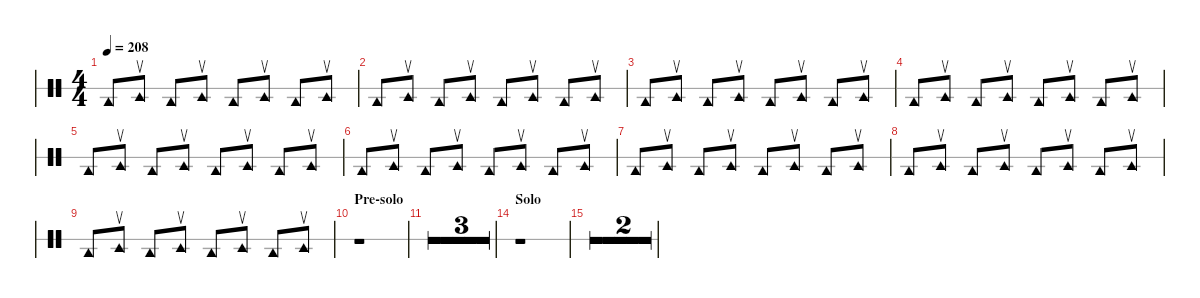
\defaultSystemsLayout 4
\hideDynamics
\bracketExtendMode nobrackets
\singleTrackTrackNamePolicy hidden
\multiTrackTrackNamePolicy hidden
\otherSystemsTrackNameOrientation horizontal
\track ("Tambourine" "tamb.") {multiBarRest instrument percussion}
\staff {score 1}
\articulation defaults
\ts (4 4)
\tempo 208
\clef neutral
\ks c "Tambourine (hit)".8{dy mf beam Up} "Tambourine (return)".8{beam Up} "Tambourine (hit)".8{beam Up} "Tambourine (return)".8{beam Up} "Tambourine (hit)".8{beam Up} "Tambourine (return)".8{beam Up} "Tambourine (hit)".8{beam Up} "Tambourine (return)".8{beam Up}
|
"Tambourine (hit)".8{beam Up} "Tambourine (return)".8{beam Up} "Tambourine (hit)".8{beam Up} "Tambourine (return)".8{beam Up} "Tambourine (hit)".8{beam Up} "Tambourine (return)".8{beam Up} "Tambourine (hit)".8{beam Up} "Tambourine (return)".8{beam Up} |
"Tambourine (hit)".8{beam Up} "Tambourine (return)".8{beam Up} "Tambourine (hit)".8{beam Up} "Tambourine (return)".8{beam Up} "Tambourine (hit)".8{beam Up} "Tambourine (return)".8{beam Up} "Tambourine (hit)".8{beam Up} "Tambourine (return)".8{beam Up} |
"Tambourine (hit)".8{beam Up} "Tambourine (return)".8{beam Up} "Tambourine (hit)".8{beam Up} "Tambourine (return)".8{beam Up} "Tambourine (hit)".8{beam Up} "Tambourine (return)".8{beam Up} "Tambourine (hit)".8{beam Up} "Tambourine (return)".8{beam Up} |
"Tambourine (hit)".8{beam Up} "Tambourine (return)".8{beam Up} "Tambourine (hit)".8{beam Up} "Tambourine (return)".8{beam Up} "Tambourine (hit)".8{beam Up} "Tambourine (return)".8{beam Up} "Tambourine (hit)".8{beam Up} "Tambourine (return)".8{beam Up} |
"Tambourine (hit)".8{beam Up} "Tambourine (return)".8{beam Up} "Tambourine (hit)".8{beam Up} "Tambourine (return)".8{beam Up} "Tambourine (hit)".8{beam Up} "Tambourine (return)".8{beam Up} "Tambourine (hit)".8{beam Up} "Tambourine (return)".8{beam Up} |
"Tambourine (hit)".8{beam Up} "Tambourine (return)".8{beam Up} "Tambourine (hit)".8{beam Up} "Tambourine (return)".8{beam Up} "Tambourine (hit)".8{beam Up} "Tambourine (return)".8{beam Up} "Tambourine (hit)".8{beam Up} "Tambourine (return)".8{beam Up} |
"Tambourine (hit)".8{beam Up} "Tambourine (return)".8{beam Up} "Tambourine (hit)".8{beam Up} "Tambourine (return)".8{beam Up} "Tambourine (hit)".8{beam Up} "Tambourine (return)".8{beam Up} "Tambourine (hit)".8{beam Up} "Tambourine (return)".8{beam Up} |
"Tambourine (hit)".8{beam Up} "Tambourine (return)".8{beam Up} "Tambourine (hit)".8{beam Up} "Tambourine (return)".8{beam Up} "Tambourine (hit)".8{beam Up} "Tambourine (return)".8{beam Up} "Tambourine (hit)".8{beam Up} "Tambourine (return)".8{beam Up} |
\section ("" "Pre-solo")
r.1{beam Down} |
r.1{beam Down} |
r.1{beam Down} |
r.1{beam Down} |
\section ("" "Solo")
r.1{beam Down} |
r.1{beam Down} |
r.1{beam Down}
